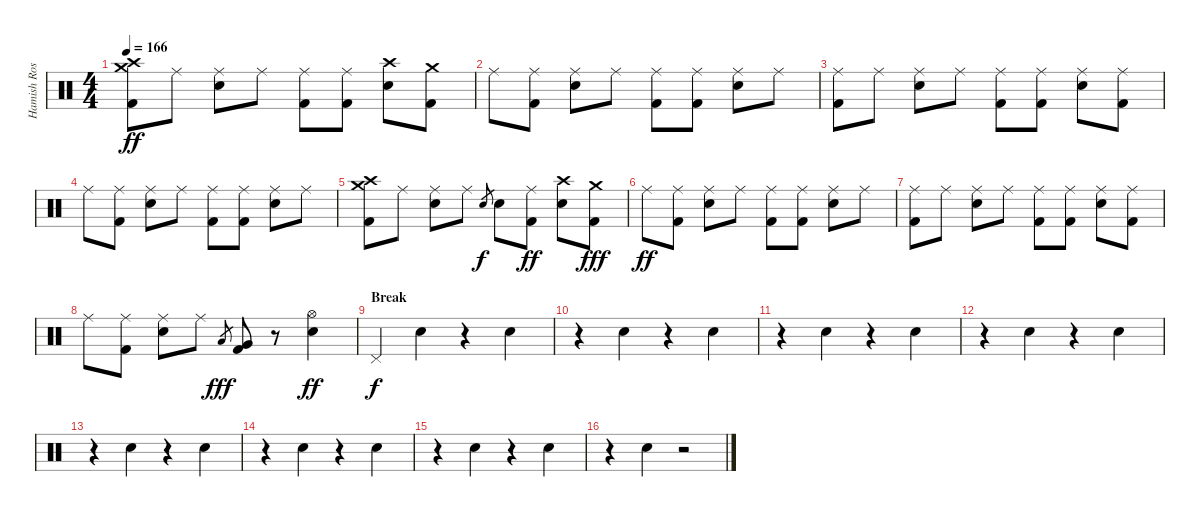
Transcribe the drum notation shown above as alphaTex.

\track ("Hamish Rosser" "Hamish Ros") {instrument percussion}
\staff {score}
\articulation defaults
\ts (4 4)
\tempo 166
\clef neutral
\ks c
("Crash medium (hit)" "Crash high (hit)" "Kick (hit) 2").8{dy ff} "Ride (middle)".8 ("Ride (middle)" "Electric Snare (hit)").8 "Ride (middle)".8 ("Ride (middle)" "Kick (hit) 2").8 ("Ride (middle)" "Kick (hit) 2").8 ("Crash high (hit)" "Electric Snare (hit)").8 ("Crash medium (hit)" "Kick (hit) 2").8 |
"Ride (middle)".8 ("Ride (middle)" "Kick (hit) 2").8 ("Ride (middle)" "Electric Snare (hit)").8 "Ride (middle)".8 ("Ride (middle)" "Kick (hit) 2").8 ("Ride (middle)" "Kick (hit) 2").8 ("Ride (middle)" "Electric Snare (hit)").8 "Ride (middle)".8 |
("Ride (middle)" "Kick (hit) 2").8 "Ride (middle)".8 ("Ride (middle)" "Electric Snare (hit)").8 "Ride (middle)".8 ("Ride (middle)" "Kick (hit) 2").8 ("Ride (middle)" "Kick (hit) 2").8 ("Ride (middle)" "Electric Snare (hit)").8 ("Ride (middle)" "Kick (hit) 2").8 |
"Ride (middle)".8 ("Ride (middle)" "Kick (hit) 2").8 ("Ride (middle)" "Electric Snare (hit)").8 "Ride (middle)".8 ("Ride (middle)" "Kick (hit) 2").8 ("Ride (middle)" "Kick (hit) 2").8 ("Ride (middle)" "Electric Snare (hit)").8 "Ride (middle)".8 |
("Crash medium (hit)" "Crash high (hit)" "Kick (hit) 2").8 "Ride (middle)".8 ("Ride (middle)" "Electric Snare (hit)").8 "Ride (middle)".8 "Electric Snare (hit)".8{gr dy f} "Electric Snare (hit)".8 ("Ride (middle)" "Kick (hit) 2").8{dy ff} ("Crash high (hit)" "Electric Snare (hit)").8 ("Crash medium (hit)" "Kick (hit) 2").8{dy fff} |
"Ride (middle)".8{dy ff} ("Ride (middle)" "Kick (hit) 2").8 ("Ride (middle)" "Electric Snare (hit)").8 "Ride (middle)".8 ("Ride (middle)" "Kick (hit) 2").8 ("Ride (middle)" "Kick (hit) 2").8 ("Ride (middle)" "Electric Snare (hit)").8 "Ride (middle)".8 |
("Ride (middle)" "Kick (hit) 2").8 "Ride (middle)".8 ("Ride (middle)" "Electric Snare (hit)").8 "Ride (middle)".8 ("Ride (middle)" "Kick (hit) 2").8 ("Ride (middle)" "Kick (hit) 2").8 ("Ride (middle)" "Electric Snare (hit)").8 ("Ride (middle)" "Kick (hit) 2").8 |
"Ride (middle)".8 ("Ride (middle)" "Kick (hit) 2").8 ("Ride (middle)" "Electric Snare (hit)").8 "Ride (middle)".8 "Low Tom (hit)".8{gr dy fff} ("Very Low Tom (hit)" "Kick (hit) 2").8 r.8 ("Hi-Hat (open)" "Electric Snare (hit)").4{dy ff} |
\section ("" "Break")
"Pedal Hi-Hat (hit)".4{dy f} "Hand Clap (hit)".4 r.4 "Hand Clap (hit)".4 |
r.4 "Hand Clap (hit)".4 r.4 "Hand Clap (hit)".4 |
r.4 "Hand Clap (hit)".4 r.4 "Hand Clap (hit)".4 |
r.4 "Hand Clap (hit)".4 r.4 "Hand Clap (hit)".4 |
r.4 "Hand Clap (hit)".4 r.4 "Hand Clap (hit)".4 |
r.4 "Hand Clap (hit)".4 r.4 "Hand Clap (hit)".4 |
r.4 "Hand Clap (hit)".4 r.4 "Hand Clap (hit)".4 |
r.4 "Hand Clap (hit)".4 r.2
